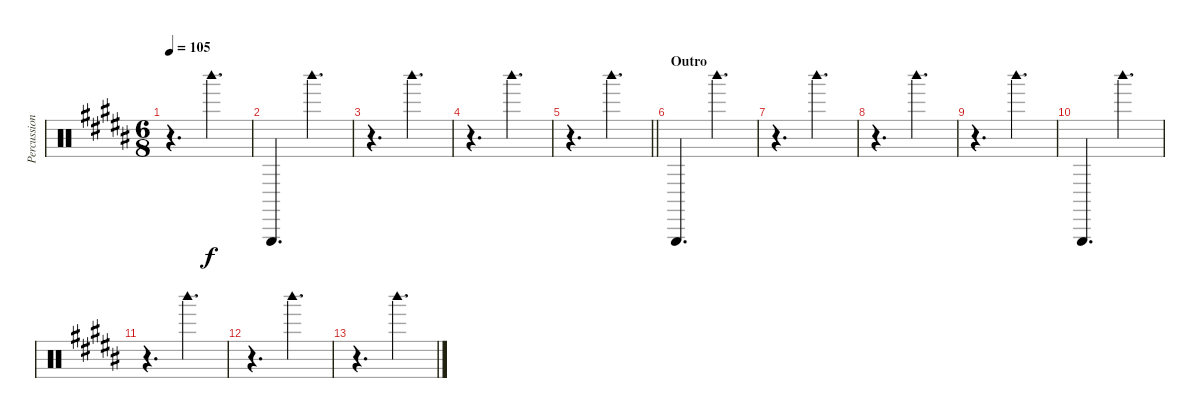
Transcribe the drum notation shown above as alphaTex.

\track ("Percussion" "Percussion") {instrument percussion}
\staff {score}
\articulation defaults
\ts (6 8)
\tempo 105
\clef neutral
\ks b
r.4{d dy f} "Woodblock high (hit)".4{d} |
"Triangle (hit)".4{d} "Woodblock high (hit)".4{d} |
r.4{d} "Woodblock high (hit)".4{d} |
r.4{d} "Woodblock high (hit)".4{d} |
\barLineRight lightlight
r.4{d} "Woodblock high (hit)".4{d} |
\section ("" "Outro")
"Triangle (hit)".4{d} "Woodblock high (hit)".4{d} |
r.4{d} "Woodblock high (hit)".4{d} |
r.4{d} "Woodblock high (hit)".4{d} |
r.4{d} "Woodblock high (hit)".4{d} |
"Triangle (hit)".4{d} "Woodblock high (hit)".4{d} |
r.4{d} "Woodblock high (hit)".4{d} |
r.4{d} "Woodblock high (hit)".4{d} |
r.4{d} "Woodblock high (hit)".4{d}
